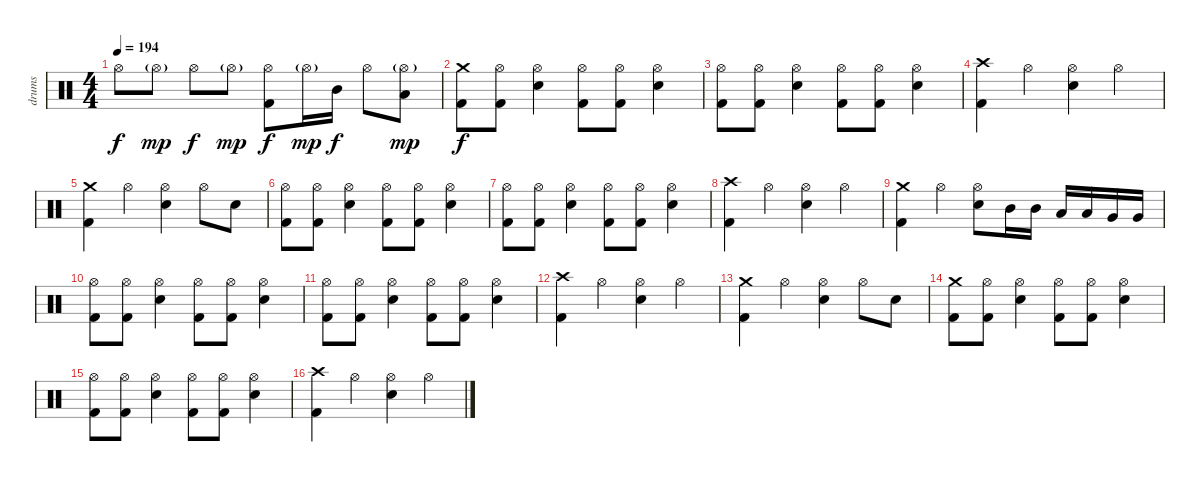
\track ("drums" "drums") {instrument percussion}
\staff {score}
\articulation defaults
\ts (4 4)
\tempo 194
\clef neutral
\ks c "Hi-Hat (open)".8{dy f} "Hi-Hat (open)"{g}.8{dy mp} "Hi-Hat (open)".8{dy f} "Hi-Hat (open)"{g}.8{dy mp}
("Hi-Hat (open)" "Kick (hit) 2").8{dy f} "Hi-Hat (open)"{g}.16{dy mp} "Mid Tom (hit)".16{dy f} "Hi-Hat (open)".8 ("Hi-Hat (open)"{g} "Low Tom (hit)").8{dy mp} |
("Crash medium (hit)" "Kick (hit) 2").8{dy f} ("Hi-Hat (open)" "Kick (hit) 2").8 ("Hi-Hat (open)" "Electric Snare (hit)").4 ("Hi-Hat (open)" "Kick (hit) 2").8 ("Hi-Hat (open)" "Kick (hit) 2").8 ("Hi-Hat (open)" "Electric Snare (hit)").4 |
("Hi-Hat (open)" "Kick (hit) 2").8 ("Hi-Hat (open)" "Kick (hit) 2").8 ("Hi-Hat (open)" "Electric Snare (hit)").4 ("Hi-Hat (open)" "Kick (hit) 2").8 ("Hi-Hat (open)" "Kick (hit) 2").8 ("Hi-Hat (open)" "Electric Snare (hit)").4 |
("Crash high (hit)" "Kick (hit) 2").4 "Hi-Hat (open)".4 ("Hi-Hat (open)" "Electric Snare (hit)").4 "Hi-Hat (open)".4 |
("Crash medium (hit)" "Kick (hit) 2").4 "Hi-Hat (open)".4 ("Hi-Hat (open)" "Electric Snare (hit)").4 "Hi-Hat (open)".8 "Electric Snare (hit)".8 |
("Hi-Hat (open)" "Kick (hit) 2").8 ("Hi-Hat (open)" "Kick (hit) 2").8 ("Hi-Hat (open)" "Electric Snare (hit)").4 ("Hi-Hat (open)" "Kick (hit) 2").8 ("Hi-Hat (open)" "Kick (hit) 2").8 ("Hi-Hat (open)" "Electric Snare (hit)").4 |
("Hi-Hat (open)" "Kick (hit) 2").8 ("Hi-Hat (open)" "Kick (hit) 2").8 ("Hi-Hat (open)" "Electric Snare (hit)").4 ("Hi-Hat (open)" "Kick (hit) 2").8 ("Hi-Hat (open)" "Kick (hit) 2").8 ("Hi-Hat (open)" "Electric Snare (hit)").4 |
("Crash high (hit)" "Kick (hit) 2").4 "Hi-Hat (open)".4 ("Hi-Hat (open)" "Electric Snare (hit)").4 "Hi-Hat (open)".4 |
("Crash medium (hit)" "Kick (hit) 2").4 "Hi-Hat (open)".4 ("Hi-Hat (open)" "Electric Snare (hit)").8 "Mid Tom (hit)".16 "Mid Tom (hit)".16 "Low Tom (hit)".16 "Low Tom (hit)".16 "Very Low Tom (hit)".16 "Very Low Tom (hit)".16 |
("Hi-Hat (open)" "Kick (hit) 2").8 ("Hi-Hat (open)" "Kick (hit) 2").8 ("Hi-Hat (open)" "Electric Snare (hit)").4 ("Hi-Hat (open)" "Kick (hit) 2").8 ("Hi-Hat (open)" "Kick (hit) 2").8 ("Hi-Hat (open)" "Electric Snare (hit)").4 |
("Hi-Hat (open)" "Kick (hit) 2").8 ("Hi-Hat (open)" "Kick (hit) 2").8 ("Hi-Hat (open)" "Electric Snare (hit)").4 ("Hi-Hat (open)" "Kick (hit) 2").8 ("Hi-Hat (open)" "Kick (hit) 2").8 ("Hi-Hat (open)" "Electric Snare (hit)").4 |
("Crash high (hit)" "Kick (hit) 2").4 "Hi-Hat (open)".4 ("Hi-Hat (open)" "Electric Snare (hit)").4 "Hi-Hat (open)".4 |
("Crash medium (hit)" "Kick (hit) 2").4 "Hi-Hat (open)".4 ("Hi-Hat (open)" "Electric Snare (hit)").4 "Hi-Hat (open)".8 "Electric Snare (hit)".8 |
("Crash medium (hit)" "Kick (hit) 2").8 ("Hi-Hat (open)" "Kick (hit) 2").8 ("Hi-Hat (open)" "Electric Snare (hit)").4 ("Hi-Hat (open)" "Kick (hit) 2").8 ("Hi-Hat (open)" "Kick (hit) 2").8 ("Hi-Hat (open)" "Electric Snare (hit)").4 |
("Hi-Hat (open)" "Kick (hit) 2").8 ("Hi-Hat (open)" "Kick (hit) 2").8 ("Hi-Hat (open)" "Electric Snare (hit)").4 ("Hi-Hat (open)" "Kick (hit) 2").8 ("Hi-Hat (open)" "Kick (hit) 2").8 ("Hi-Hat (open)" "Electric Snare (hit)").4 |
("Crash high (hit)" "Kick (hit) 2").4 "Hi-Hat (open)".4 ("Hi-Hat (open)" "Electric Snare (hit)").4 "Hi-Hat (open)".4
